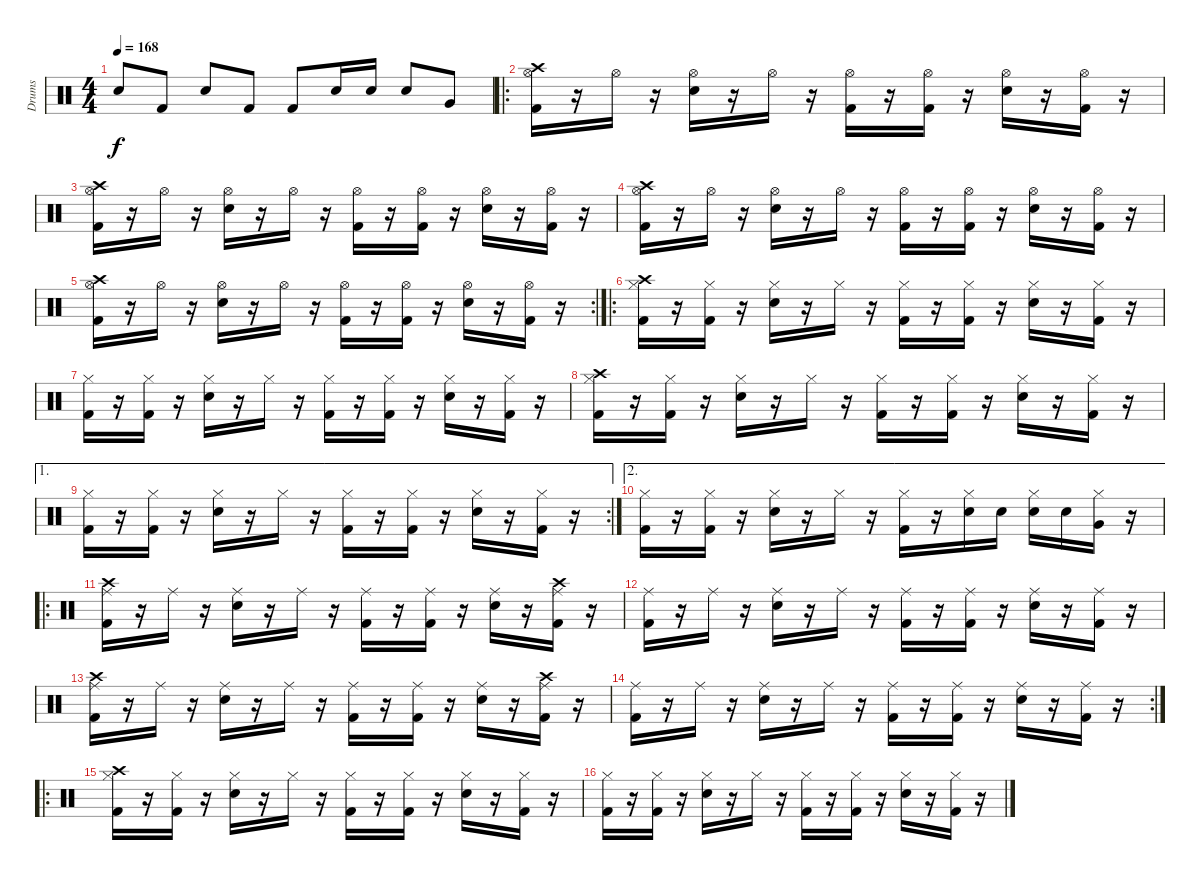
\track ("Drums" "Drums") {instrument percussion}
\staff {score}
\articulation defaults
\ts (4 4)
\tempo 168
\clef neutral
\ks c "Snare (hit) 2".8{dy f} "Kick (hit) 2".8 "Snare (hit) 2".8 "Kick (hit) 2".8 "Kick (hit) 2".8 "Snare (hit) 2".16 "Snare (hit) 2".16 "Snare (hit) 2".8 "Very Low Tom (hit)".8
|
\ro
("Hi-Hat (open)" "Kick (hit) 2" "Crash high (hit)").16 r.16 "Hi-Hat (open)".16 r.16 ("Hi-Hat (open)" "Snare (hit) 2").16 r.16 "Hi-Hat (open)".16 r.16 ("Hi-Hat (open)" "Kick (hit) 2").16 r.16 ("Hi-Hat (open)" "Kick (hit) 2").16 r.16 ("Hi-Hat (open)" "Snare (hit) 2").16 r.16 ("Hi-Hat (open)" "Kick (hit) 2").16 r.16 |
("Hi-Hat (open)" "Kick (hit) 2" "Crash high (hit)").16 r.16 "Hi-Hat (open)".16 r.16 ("Hi-Hat (open)" "Snare (hit) 2").16 r.16 "Hi-Hat (open)".16 r.16 ("Hi-Hat (open)" "Kick (hit) 2").16 r.16 ("Hi-Hat (open)" "Kick (hit) 2").16 r.16 ("Hi-Hat (open)" "Snare (hit) 2").16 r.16 ("Hi-Hat (open)" "Kick (hit) 2").16 r.16 |
("Hi-Hat (open)" "Kick (hit) 2" "Crash high (hit)").16 r.16 "Hi-Hat (open)".16 r.16 ("Hi-Hat (open)" "Snare (hit) 2").16 r.16 "Hi-Hat (open)".16 r.16 ("Hi-Hat (open)" "Kick (hit) 2").16 r.16 ("Hi-Hat (open)" "Kick (hit) 2").16 r.16 ("Hi-Hat (open)" "Snare (hit) 2").16 r.16 ("Hi-Hat (open)" "Kick (hit) 2").16 r.16 |
\rc 2
("Hi-Hat (open)" "Kick (hit) 2" "Crash high (hit)").16 r.16 "Hi-Hat (open)".16 r.16 ("Hi-Hat (open)" "Snare (hit) 2").16 r.16 "Hi-Hat (open)".16 r.16 ("Hi-Hat (open)" "Kick (hit) 2").16 r.16 ("Hi-Hat (open)" "Kick (hit) 2").16 r.16 ("Hi-Hat (open)" "Snare (hit) 2").16 r.16 ("Hi-Hat (open)" "Kick (hit) 2").16 r.16 |
\ro
("Hi-Hat (closed)" "Kick (hit) 2" "Crash high (hit)").16 r.16 ("Hi-Hat (closed)" "Kick (hit) 2").16 r.16 ("Hi-Hat (closed)" "Snare (hit) 2").16 r.16 "Hi-Hat (closed)".16 r.16 ("Hi-Hat (closed)" "Kick (hit) 2").16 r.16 ("Hi-Hat (closed)" "Kick (hit) 2").16 r.16 ("Hi-Hat (closed)" "Snare (hit) 2").16 r.16 ("Hi-Hat (closed)" "Kick (hit) 2").16 r.16 |
("Hi-Hat (closed)" "Kick (hit) 2").16 r.16 ("Hi-Hat (closed)" "Kick (hit) 2").16 r.16 ("Hi-Hat (closed)" "Snare (hit) 2").16 r.16 "Hi-Hat (closed)".16 r.16 ("Hi-Hat (closed)" "Kick (hit) 2").16 r.16 ("Hi-Hat (closed)" "Kick (hit) 2").16 r.16 ("Hi-Hat (closed)" "Snare (hit) 2").16 r.16 ("Hi-Hat (closed)" "Kick (hit) 2").16 r.16 |
("Hi-Hat (closed)" "Kick (hit) 2" "Crash high (hit)").16 r.16 ("Hi-Hat (closed)" "Kick (hit) 2").16 r.16 ("Hi-Hat (closed)" "Snare (hit) 2").16 r.16 "Hi-Hat (closed)".16 r.16 ("Hi-Hat (closed)" "Kick (hit) 2").16 r.16 ("Hi-Hat (closed)" "Kick (hit) 2").16 r.16 ("Hi-Hat (closed)" "Snare (hit) 2").16 r.16 ("Hi-Hat (closed)" "Kick (hit) 2").16 r.16 |
\ae 1
\rc 2
("Hi-Hat (closed)" "Kick (hit) 2").16 r.16 ("Hi-Hat (closed)" "Kick (hit) 2").16 r.16 ("Hi-Hat (closed)" "Snare (hit) 2").16 r.16 "Hi-Hat (closed)".16 r.16 ("Hi-Hat (closed)" "Kick (hit) 2").16 r.16 ("Hi-Hat (closed)" "Kick (hit) 2").16 r.16 ("Hi-Hat (closed)" "Snare (hit) 2").16 r.16 ("Hi-Hat (closed)" "Kick (hit) 2").16 r.16 |
\ae 2
("Hi-Hat (closed)" "Kick (hit) 2").16 r.16 ("Hi-Hat (closed)" "Kick (hit) 2").16 r.16 ("Hi-Hat (closed)" "Snare (hit) 2").16 r.16 "Hi-Hat (closed)".16 r.16 ("Hi-Hat (closed)" "Kick (hit) 2").16 r.16 ("Hi-Hat (closed)" "Snare (hit) 2").16 "Snare (hit) 2".16 ("Hi-Hat (closed)" "Snare (hit) 2").16 "Snare (hit) 2".16 ("Hi-Hat (closed)" "Very Low Tom (hit)").16 r.16 |
\ro
("Ride (middle)" "Kick (hit) 2" "Crash high (hit)").16 r.16 "Ride (middle)".16 r.16 ("Ride (middle)" "Snare (hit) 2").16 r.16 "Ride (middle)".16 r.16 ("Ride (middle)" "Kick (hit) 2").16 r.16 ("Ride (middle)" "Kick (hit) 2").16 r.16 ("Ride (middle)" "Snare (hit) 2").16 r.16 ("Ride (middle)" "Kick (hit) 2" "Crash high (hit)").16 r.16 |
("Ride (middle)" "Kick (hit) 2").16 r.16 "Ride (middle)".16 r.16 ("Ride (middle)" "Snare (hit) 2").16 r.16 "Ride (middle)".16 r.16 ("Ride (middle)" "Kick (hit) 2").16 r.16 ("Ride (middle)" "Kick (hit) 2").16 r.16 ("Ride (middle)" "Snare (hit) 2").16 r.16 ("Ride (middle)" "Kick (hit) 2").16 r.16 |
("Ride (middle)" "Kick (hit) 2" "Crash high (hit)").16 r.16 "Ride (middle)".16 r.16 ("Ride (middle)" "Snare (hit) 2").16 r.16 "Ride (middle)".16 r.16 ("Ride (middle)" "Kick (hit) 2").16 r.16 ("Ride (middle)" "Kick (hit) 2").16 r.16 ("Ride (middle)" "Snare (hit) 2").16 r.16 ("Ride (middle)" "Kick (hit) 2" "Crash high (hit)").16 r.16 |
\rc 2
("Ride (middle)" "Kick (hit) 2").16 r.16 "Ride (middle)".16 r.16 ("Ride (middle)" "Snare (hit) 2").16 r.16 "Ride (middle)".16 r.16 ("Ride (middle)" "Kick (hit) 2").16 r.16 ("Ride (middle)" "Kick (hit) 2").16 r.16 ("Ride (middle)" "Snare (hit) 2").16 r.16 ("Ride (middle)" "Kick (hit) 2").16 r.16 |
\ro
("Hi-Hat (closed)" "Kick (hit) 2" "Crash high (hit)").16 r.16 ("Hi-Hat (closed)" "Kick (hit) 2").16 r.16 ("Hi-Hat (closed)" "Snare (hit) 2").16 r.16 "Hi-Hat (closed)".16 r.16 ("Hi-Hat (closed)" "Kick (hit) 2").16 r.16 ("Hi-Hat (closed)" "Kick (hit) 2").16 r.16 ("Hi-Hat (closed)" "Snare (hit) 2").16 r.16 ("Hi-Hat (closed)" "Kick (hit) 2").16 r.16 |
("Hi-Hat (closed)" "Kick (hit) 2").16 r.16 ("Hi-Hat (closed)" "Kick (hit) 2").16 r.16 ("Hi-Hat (closed)" "Snare (hit) 2").16 r.16 "Hi-Hat (closed)".16 r.16 ("Hi-Hat (closed)" "Kick (hit) 2").16 r.16 ("Hi-Hat (closed)" "Kick (hit) 2").16 r.16 ("Hi-Hat (closed)" "Snare (hit) 2").16 r.16 ("Hi-Hat (closed)" "Kick (hit) 2").16 r.16
